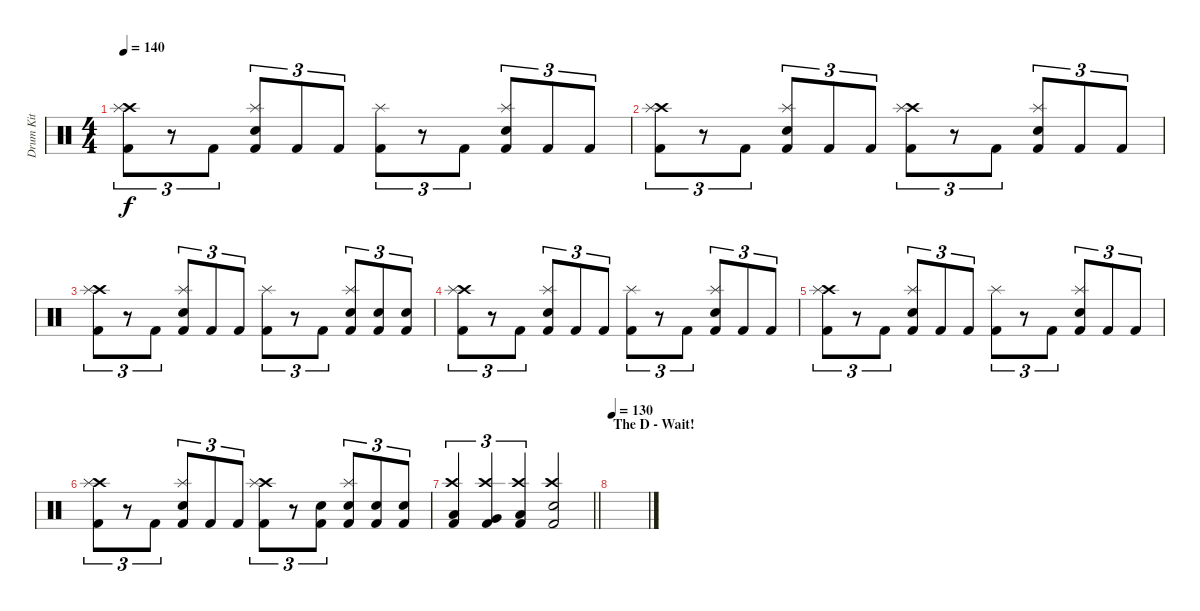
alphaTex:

\track ("Drum Kit" "Drum Kit") {instrument percussion}
\staff {score}
\articulation defaults
\ts (4 4)
\tempo 140
\clef neutral
\ks c
("Kick (hit) 2" "Crash high (hit)" "Splash (hit)").8{tu (3 2) dy f} r.8{tu (3 2)} "Kick (hit) 2".8{tu (3 2)} ("Kick (hit) 2" "Electric Snare (hit)" "Splash (hit)").8{tu (3 2)} "Kick (hit) 2".8{tu (3 2)} "Kick (hit) 2".8{tu (3 2)} ("Kick (hit) 2" "Splash (hit)").8{tu (3 2)} r.8{tu (3 2)} "Kick (hit) 2".8{tu (3 2)} ("Kick (hit) 2" "Electric Snare (hit)" "Splash (hit)").8{tu (3 2)} "Kick (hit) 2".8{tu (3 2)} "Kick (hit) 2".8{tu (3 2)} |
("Kick (hit) 2" "Crash high (hit)" "Splash (hit)").8{tu (3 2)} r.8{tu (3 2)} "Kick (hit) 2".8{tu (3 2)} ("Kick (hit) 2" "Electric Snare (hit)" "Splash (hit)").8{tu (3 2)} "Kick (hit) 2".8{tu (3 2)} "Kick (hit) 2".8{tu (3 2)} ("Kick (hit) 2" "Crash high (hit)" "Splash (hit)").8{tu (3 2)} r.8{tu (3 2)} "Kick (hit) 2".8{tu (3 2)} ("Kick (hit) 2" "Electric Snare (hit)" "Splash (hit)").8{tu (3 2)} "Kick (hit) 2".8{tu (3 2)} "Kick (hit) 2".8{tu (3 2)} |
("Kick (hit) 2" "Crash high (hit)" "Splash (hit)").8{tu (3 2)} r.8{tu (3 2)} "Kick (hit) 2".8{tu (3 2)} ("Kick (hit) 2" "Electric Snare (hit)" "Splash (hit)").8{tu (3 2)} "Kick (hit) 2".8{tu (3 2)} "Kick (hit) 2".8{tu (3 2)} ("Kick (hit) 2" "Splash (hit)").8{tu (3 2)} r.8{tu (3 2)} "Kick (hit) 2".8{tu (3 2)} ("Kick (hit) 2" "Electric Snare (hit)" "Splash (hit)").8{tu (3 2)} ("Kick (hit) 2" "Electric Snare (hit)").8{tu (3 2)} ("Kick (hit) 2" "Electric Snare (hit)").8{tu (3 2)} |
("Kick (hit) 2" "Crash high (hit)" "Splash (hit)").8{tu (3 2)} r.8{tu (3 2)} "Kick (hit) 2".8{tu (3 2)} ("Kick (hit) 2" "Electric Snare (hit)" "Splash (hit)").8{tu (3 2)} "Kick (hit) 2".8{tu (3 2)} "Kick (hit) 2".8{tu (3 2)} ("Kick (hit) 2" "Splash (hit)").8{tu (3 2)} r.8{tu (3 2)} "Kick (hit) 2".8{tu (3 2)} ("Kick (hit) 2" "Electric Snare (hit)" "Splash (hit)").8{tu (3 2)} "Kick (hit) 2".8{tu (3 2)} "Kick (hit) 2".8{tu (3 2)} |
("Kick (hit) 2" "Crash high (hit)" "Splash (hit)").8{tu (3 2)} r.8{tu (3 2)} "Kick (hit) 2".8{tu (3 2)} ("Kick (hit) 2" "Electric Snare (hit)" "Splash (hit)").8{tu (3 2)} "Kick (hit) 2".8{tu (3 2)} "Kick (hit) 2".8{tu (3 2)} ("Kick (hit) 2" "Splash (hit)").8{tu (3 2)} r.8{tu (3 2)} "Kick (hit) 2".8{tu (3 2)} ("Kick (hit) 2" "Electric Snare (hit)" "Splash (hit)").8{tu (3 2)} "Kick (hit) 2".8{tu (3 2)} "Kick (hit) 2".8{tu (3 2)} |
("Kick (hit) 2" "Crash high (hit)" "Splash (hit)").8{tu (3 2)} r.8{tu (3 2)} "Kick (hit) 2".8{tu (3 2)} ("Kick (hit) 2" "Electric Snare (hit)" "Splash (hit)").8{tu (3 2)} "Kick (hit) 2".8{tu (3 2)} "Kick (hit) 2".8{tu (3 2)} ("Kick (hit) 2" "Crash high (hit)" "Splash (hit)").8{tu (3 2)} r.8{tu (3 2)} ("Kick (hit) 2" "Electric Snare (hit)").8{tu (3 2)} ("Kick (hit) 2" "Electric Snare (hit)" "Splash (hit)").8{tu (3 2)} ("Kick (hit) 2" "Electric Snare (hit)").8{tu (3 2)} ("Kick (hit) 2" "Electric Snare (hit)").8{tu (3 2)} |
\barLineRight lightlight
("Kick (hit) 2" "Low Tom (hit)" "Crash high (hit)").4{tu (3 2)} ("Kick (hit) 2" "Very Low Tom (hit)" "Crash high (hit)").4{tu (3 2)} ("Kick (hit) 2" "Low Floor Tom (hit)" "Crash high (hit)").4{tu (3 2)} ("Kick (hit) 2" "Electric Snare (hit)" "Crash high (hit)").2 |
\section ("" "The D - Wait!")
\tempo 130
